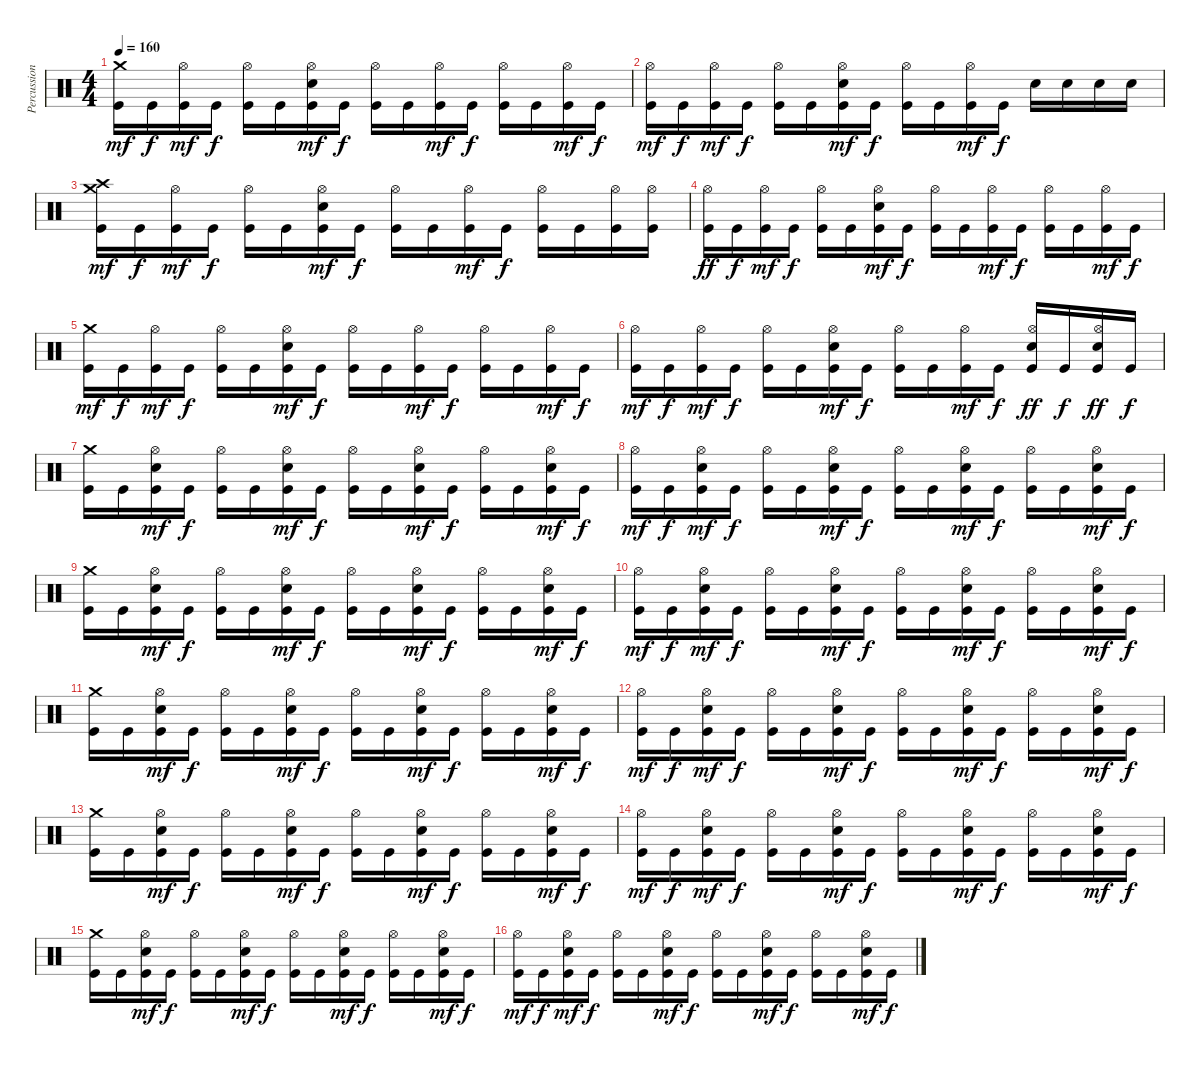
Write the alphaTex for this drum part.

\track ("Percussions" "Percussion") {instrument percussion}
\staff {score}
\articulation defaults
\ts (4 4)
\tempo 160
\clef neutral
\ks c
("Crash medium (hit)" "Kick (hit)").16{dy mf} "Kick (hit)".16{dy f} ("Hi-Hat (open)" "Kick (hit)").16{dy mf} "Kick (hit)".16{dy f} ("Hi-Hat (open)" "Kick (hit)").16 "Kick (hit)".16 ("Hi-Hat (open)" "Electric Snare (hit)" "Kick (hit)").16{dy mf} "Kick (hit)".16{dy f} ("Hi-Hat (open)" "Kick (hit)").16 "Kick (hit)".16 ("Hi-Hat (open)" "Kick (hit)").16{dy mf} "Kick (hit)".16{dy f} ("Hi-Hat (open)" "Kick (hit)").16 "Kick (hit)".16 ("Hi-Hat (open)" "Kick (hit)").16{dy mf} "Kick (hit)".16{dy f} |
("Hi-Hat (open)" "Kick (hit)").16{dy mf} "Kick (hit)".16{dy f} ("Hi-Hat (open)" "Kick (hit)").16{dy mf} "Kick (hit)".16{dy f} ("Hi-Hat (open)" "Kick (hit)").16 "Kick (hit)".16 ("Hi-Hat (open)" "Electric Snare (hit)" "Kick (hit)").16{dy mf} "Kick (hit)".16{dy f} ("Hi-Hat (open)" "Kick (hit)").16 "Kick (hit)".16 ("Hi-Hat (open)" "Kick (hit)").16{dy mf} "Kick (hit)".16{dy f} "Electric Snare (hit)".16 "Electric Snare (hit)".16 "Electric Snare (hit)".16 "Electric Snare (hit)".16 |
("Crash medium (hit)" "Crash high (hit)" "Kick (hit)").16{dy mf} "Kick (hit)".16{dy f} ("Hi-Hat (open)" "Kick (hit)").16{dy mf} "Kick (hit)".16{dy f} ("Hi-Hat (open)" "Kick (hit)").16 "Kick (hit)".16 ("Hi-Hat (open)" "Electric Snare (hit)" "Kick (hit)").16{dy mf} "Kick (hit)".16{dy f} ("Hi-Hat (open)" "Kick (hit)").16 "Kick (hit)".16 ("Hi-Hat (open)" "Kick (hit)").16{dy mf} "Kick (hit)".16{dy f} ("Hi-Hat (open)" "Kick (hit)").16 "Kick (hit)".16 ("Hi-Hat (open)" "Kick (hit)").16 ("Hi-Hat (open)" "Kick (hit)").16 |
("Hi-Hat (open)" "Kick (hit)").16{dy ff} "Kick (hit)".16{dy f} ("Hi-Hat (open)" "Kick (hit)").16{dy mf} "Kick (hit)".16{dy f} ("Hi-Hat (open)" "Kick (hit)").16 "Kick (hit)".16 ("Hi-Hat (open)" "Electric Snare (hit)" "Kick (hit)").16{dy mf} "Kick (hit)".16{dy f} ("Hi-Hat (open)" "Kick (hit)").16 "Kick (hit)".16 ("Hi-Hat (open)" "Kick (hit)").16{dy mf} "Kick (hit)".16{dy f} ("Hi-Hat (open)" "Kick (hit)").16 "Kick (hit)".16 ("Hi-Hat (open)" "Kick (hit)").16{dy mf} "Kick (hit)".16{dy f} |
("Crash medium (hit)" "Kick (hit)").16{dy mf} "Kick (hit)".16{dy f} ("Hi-Hat (open)" "Kick (hit)").16{dy mf} "Kick (hit)".16{dy f} ("Hi-Hat (open)" "Kick (hit)").16 "Kick (hit)".16 ("Hi-Hat (open)" "Electric Snare (hit)" "Kick (hit)").16{dy mf} "Kick (hit)".16{dy f} ("Hi-Hat (open)" "Kick (hit)").16 "Kick (hit)".16 ("Hi-Hat (open)" "Kick (hit)").16{dy mf} "Kick (hit)".16{dy f} ("Hi-Hat (open)" "Kick (hit)").16 "Kick (hit)".16 ("Hi-Hat (open)" "Kick (hit)").16{dy mf} "Kick (hit)".16{dy f} |
("Hi-Hat (open)" "Kick (hit)").16{dy mf} "Kick (hit)".16{dy f} ("Hi-Hat (open)" "Kick (hit)").16{dy mf} "Kick (hit)".16{dy f} ("Hi-Hat (open)" "Kick (hit)").16 "Kick (hit)".16 ("Hi-Hat (open)" "Electric Snare (hit)" "Kick (hit)").16{dy mf} "Kick (hit)".16{dy f} ("Hi-Hat (open)" "Kick (hit)").16 "Kick (hit)".16 ("Hi-Hat (open)" "Kick (hit)").16{dy mf} "Kick (hit)".16{dy f} ("Hi-Hat (open)" "Electric Snare (hit)" "Kick (hit)").16{dy ff} "Kick (hit)".16{dy f} ("Hi-Hat (open)" "Electric Snare (hit)" "Kick (hit)").16{dy ff} "Kick (hit)".16{dy f} |
("Crash medium (hit)" "Kick (hit)").16 "Kick (hit)".16 ("Hi-Hat (open)" "Electric Snare (hit)" "Kick (hit)").16{dy mf} "Kick (hit)".16{dy f} ("Hi-Hat (open)" "Kick (hit)").16 "Kick (hit)".16 ("Hi-Hat (open)" "Electric Snare (hit)" "Kick (hit)").16{dy mf} "Kick (hit)".16{dy f} ("Hi-Hat (open)" "Kick (hit)").16 "Kick (hit)".16 ("Hi-Hat (open)" "Electric Snare (hit)" "Kick (hit)").16{dy mf} "Kick (hit)".16{dy f} ("Hi-Hat (open)" "Kick (hit)").16 "Kick (hit)".16 ("Hi-Hat (open)" "Electric Snare (hit)" "Kick (hit)").16{dy mf} "Kick (hit)".16{dy f} |
("Hi-Hat (open)" "Kick (hit)").16{dy mf} "Kick (hit)".16{dy f} ("Hi-Hat (open)" "Electric Snare (hit)" "Kick (hit)").16{dy mf} "Kick (hit)".16{dy f} ("Hi-Hat (open)" "Kick (hit)").16 "Kick (hit)".16 ("Hi-Hat (open)" "Electric Snare (hit)" "Kick (hit)").16{dy mf} "Kick (hit)".16{dy f} ("Hi-Hat (open)" "Kick (hit)").16 "Kick (hit)".16 ("Hi-Hat (open)" "Electric Snare (hit)" "Kick (hit)").16{dy mf} "Kick (hit)".16{dy f} ("Hi-Hat (open)" "Kick (hit)").16 "Kick (hit)".16 ("Hi-Hat (open)" "Electric Snare (hit)" "Kick (hit)").16{dy mf} "Kick (hit)".16{dy f} |
("Crash medium (hit)" "Kick (hit)").16 "Kick (hit)".16 ("Hi-Hat (open)" "Electric Snare (hit)" "Kick (hit)").16{dy mf} "Kick (hit)".16{dy f} ("Hi-Hat (open)" "Kick (hit)").16 "Kick (hit)".16 ("Hi-Hat (open)" "Electric Snare (hit)" "Kick (hit)").16{dy mf} "Kick (hit)".16{dy f} ("Hi-Hat (open)" "Kick (hit)").16 "Kick (hit)".16 ("Hi-Hat (open)" "Electric Snare (hit)" "Kick (hit)").16{dy mf} "Kick (hit)".16{dy f} ("Hi-Hat (open)" "Kick (hit)").16 "Kick (hit)".16 ("Hi-Hat (open)" "Electric Snare (hit)" "Kick (hit)").16{dy mf} "Kick (hit)".16{dy f} |
("Hi-Hat (open)" "Kick (hit)").16{dy mf} "Kick (hit)".16{dy f} ("Hi-Hat (open)" "Electric Snare (hit)" "Kick (hit)").16{dy mf} "Kick (hit)".16{dy f} ("Hi-Hat (open)" "Kick (hit)").16 "Kick (hit)".16 ("Hi-Hat (open)" "Electric Snare (hit)" "Kick (hit)").16{dy mf} "Kick (hit)".16{dy f} ("Hi-Hat (open)" "Kick (hit)").16 "Kick (hit)".16 ("Hi-Hat (open)" "Electric Snare (hit)" "Kick (hit)").16{dy mf} "Kick (hit)".16{dy f} ("Hi-Hat (open)" "Kick (hit)").16 "Kick (hit)".16 ("Hi-Hat (open)" "Electric Snare (hit)" "Kick (hit)").16{dy mf} "Kick (hit)".16{dy f} |
("Crash medium (hit)" "Kick (hit)").16 "Kick (hit)".16 ("Hi-Hat (open)" "Electric Snare (hit)" "Kick (hit)").16{dy mf} "Kick (hit)".16{dy f} ("Hi-Hat (open)" "Kick (hit)").16 "Kick (hit)".16 ("Hi-Hat (open)" "Electric Snare (hit)" "Kick (hit)").16{dy mf} "Kick (hit)".16{dy f} ("Hi-Hat (open)" "Kick (hit)").16 "Kick (hit)".16 ("Hi-Hat (open)" "Electric Snare (hit)" "Kick (hit)").16{dy mf} "Kick (hit)".16{dy f} ("Hi-Hat (open)" "Kick (hit)").16 "Kick (hit)".16 ("Hi-Hat (open)" "Electric Snare (hit)" "Kick (hit)").16{dy mf} "Kick (hit)".16{dy f} |
("Hi-Hat (open)" "Kick (hit)").16{dy mf} "Kick (hit)".16{dy f} ("Hi-Hat (open)" "Electric Snare (hit)" "Kick (hit)").16{dy mf} "Kick (hit)".16{dy f} ("Hi-Hat (open)" "Kick (hit)").16 "Kick (hit)".16 ("Hi-Hat (open)" "Electric Snare (hit)" "Kick (hit)").16{dy mf} "Kick (hit)".16{dy f} ("Hi-Hat (open)" "Kick (hit)").16 "Kick (hit)".16 ("Hi-Hat (open)" "Electric Snare (hit)" "Kick (hit)").16{dy mf} "Kick (hit)".16{dy f} ("Hi-Hat (open)" "Kick (hit)").16 "Kick (hit)".16 ("Hi-Hat (open)" "Electric Snare (hit)" "Kick (hit)").16{dy mf} "Kick (hit)".16{dy f} |
("Crash medium (hit)" "Kick (hit)").16 "Kick (hit)".16 ("Hi-Hat (open)" "Electric Snare (hit)" "Kick (hit)").16{dy mf} "Kick (hit)".16{dy f} ("Hi-Hat (open)" "Kick (hit)").16 "Kick (hit)".16 ("Hi-Hat (open)" "Electric Snare (hit)" "Kick (hit)").16{dy mf} "Kick (hit)".16{dy f} ("Hi-Hat (open)" "Kick (hit)").16 "Kick (hit)".16 ("Hi-Hat (open)" "Electric Snare (hit)" "Kick (hit)").16{dy mf} "Kick (hit)".16{dy f} ("Hi-Hat (open)" "Kick (hit)").16 "Kick (hit)".16 ("Hi-Hat (open)" "Electric Snare (hit)" "Kick (hit)").16{dy mf} "Kick (hit)".16{dy f} |
("Hi-Hat (open)" "Kick (hit)").16{dy mf} "Kick (hit)".16{dy f} ("Hi-Hat (open)" "Electric Snare (hit)" "Kick (hit)").16{dy mf} "Kick (hit)".16{dy f} ("Hi-Hat (open)" "Kick (hit)").16 "Kick (hit)".16 ("Hi-Hat (open)" "Electric Snare (hit)" "Kick (hit)").16{dy mf} "Kick (hit)".16{dy f} ("Hi-Hat (open)" "Kick (hit)").16 "Kick (hit)".16 ("Hi-Hat (open)" "Electric Snare (hit)" "Kick (hit)").16{dy mf} "Kick (hit)".16{dy f} ("Hi-Hat (open)" "Kick (hit)").16 "Kick (hit)".16 ("Hi-Hat (open)" "Electric Snare (hit)" "Kick (hit)").16{dy mf} "Kick (hit)".16{dy f} |
("Crash medium (hit)" "Kick (hit)").16 "Kick (hit)".16 ("Hi-Hat (open)" "Electric Snare (hit)" "Kick (hit)").16{dy mf} "Kick (hit)".16{dy f} ("Hi-Hat (open)" "Kick (hit)").16 "Kick (hit)".16 ("Hi-Hat (open)" "Electric Snare (hit)" "Kick (hit)").16{dy mf} "Kick (hit)".16{dy f} ("Hi-Hat (open)" "Kick (hit)").16 "Kick (hit)".16 ("Hi-Hat (open)" "Electric Snare (hit)" "Kick (hit)").16{dy mf} "Kick (hit)".16{dy f} ("Hi-Hat (open)" "Kick (hit)").16 "Kick (hit)".16 ("Hi-Hat (open)" "Electric Snare (hit)" "Kick (hit)").16{dy mf} "Kick (hit)".16{dy f} |
("Hi-Hat (open)" "Kick (hit)").16{dy mf} "Kick (hit)".16{dy f} ("Hi-Hat (open)" "Electric Snare (hit)" "Kick (hit)").16{dy mf} "Kick (hit)".16{dy f} ("Hi-Hat (open)" "Kick (hit)").16 "Kick (hit)".16 ("Hi-Hat (open)" "Electric Snare (hit)" "Kick (hit)").16{dy mf} "Kick (hit)".16{dy f} ("Hi-Hat (open)" "Kick (hit)").16 "Kick (hit)".16 ("Hi-Hat (open)" "Electric Snare (hit)" "Kick (hit)").16{dy mf} "Kick (hit)".16{dy f} ("Hi-Hat (open)" "Kick (hit)").16 "Kick (hit)".16 ("Hi-Hat (open)" "Electric Snare (hit)" "Kick (hit)").16{dy mf} "Kick (hit)".16{dy f}
